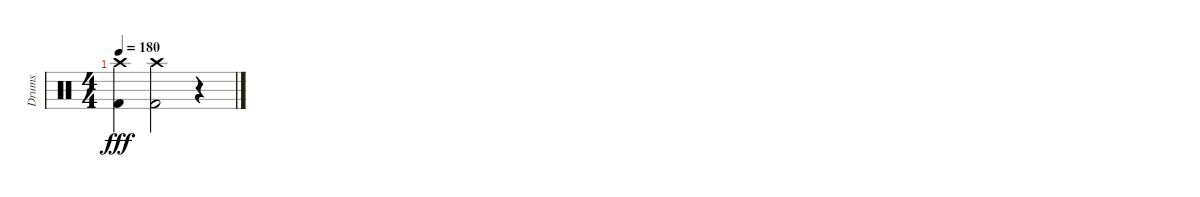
\track ("Drums" "Drums") {instrument percussion}
\staff {score}
\articulation defaults
\ts (4 4)
\tempo 180
\clef neutral
\ks c
("Crash high (hit)" "Kick (hit) 2").4{dy fff} ("Crash high (hit)" "Kick (hit) 2").2 r.4
